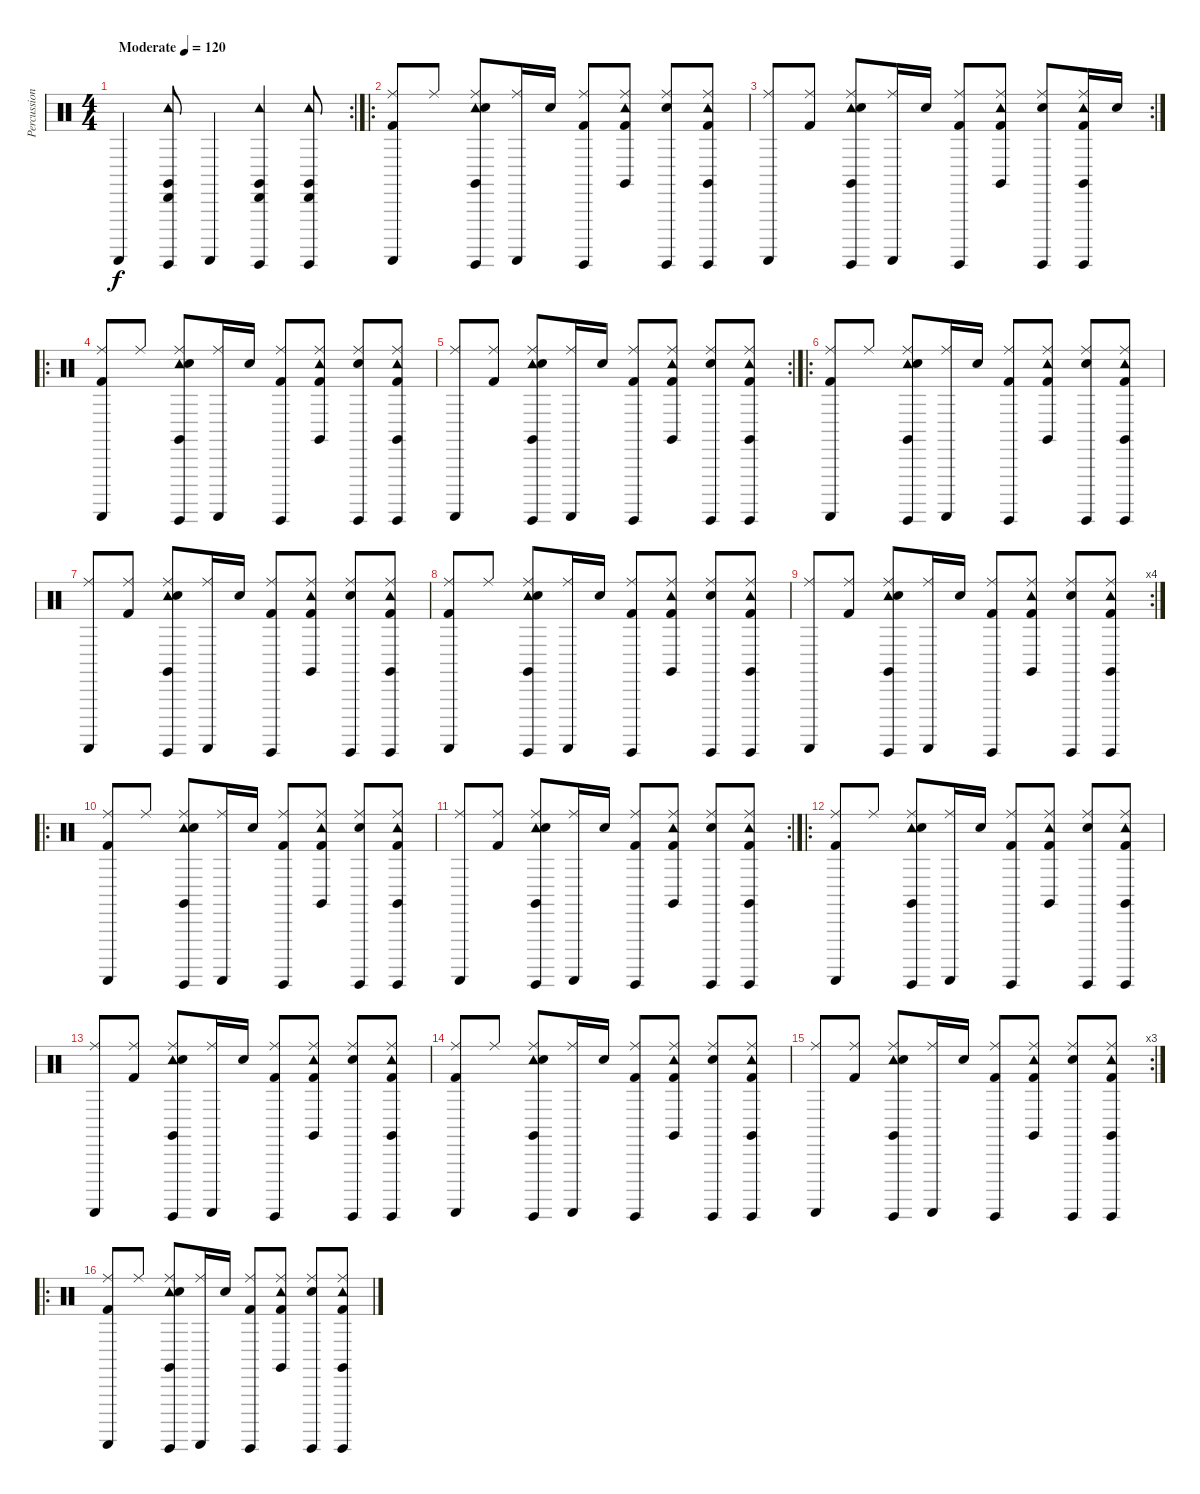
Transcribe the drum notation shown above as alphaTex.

\track ("Percussion" "Percussion") {instrument percussion}
\staff {score}
\articulation defaults
\rc 2
\ts (4 4)
\tempo (120 "Moderate")
\clef neutral
\ks c "Guiro (scrap-return)".4{dy f}
("Cabasa (hit)" "Tambourine (hit)" "Claves (hit)" "Guiro (hit)").8 "Guiro (scrap-return)".4 ("Cabasa (hit)" "Tambourine (hit)" "Claves (hit)" "Guiro (hit)").4 ("Cabasa (hit)" "Tambourine (hit)" "Claves (hit)" "Guiro (hit)").8 |
\ro
("Guiro (scrap-return)" "Ride (middle)" "Kick (hit) 2").8 "Ride (middle)".8 ("Tambourine (hit)" "Guiro (hit)" "Claves (hit)" "Snare (hit) 2" "Ride (middle)").8 ("Guiro (scrap-return)" "Ride (middle)").16 "Snare (hit) 2".16 ("Guiro (hit)" "Kick (hit) 2" "Ride (middle)").8 ("Tambourine (hit)" "Claves (hit)" "Kick (hit) 2" "Ride (middle)").8 ("Guiro (hit)" "Snare (hit) 2" "Ride (middle)").8 ("Tambourine (hit)" "Guiro (hit)" "Claves (hit)" "Kick (hit) 2" "Ride (middle)").8 |
\rc 2
("Guiro (scrap-return)" "Ride (middle)").8 ("Ride (middle)" "Kick (hit) 2").8 ("Tambourine (hit)" "Guiro (hit)" "Claves (hit)" "Snare (hit) 2" "Ride (middle)").8 ("Guiro (scrap-return)" "Ride (middle)").16 "Snare (hit) 2".16 ("Guiro (hit)" "Kick (hit) 2" "Ride (middle)").8 ("Tambourine (hit)" "Claves (hit)" "Kick (hit) 2" "Ride (middle)").8 ("Guiro (hit)" "Snare (hit) 2" "Ride (middle)").8 ("Tambourine (hit)" "Guiro (hit)" "Claves (hit)" "Kick (hit) 2" "Ride (middle)").16 "Snare (hit) 2".16 |
\ro
("Guiro (scrap-return)" "Ride (middle)" "Kick (hit) 2").8 "Ride (middle)".8 ("Tambourine (hit)" "Guiro (hit)" "Claves (hit)" "Snare (hit) 2" "Ride (middle)").8 ("Guiro (scrap-return)" "Ride (middle)").16 "Snare (hit) 2".16 ("Guiro (hit)" "Kick (hit) 2" "Ride (middle)").8 ("Tambourine (hit)" "Claves (hit)" "Kick (hit) 2" "Ride (middle)").8 ("Guiro (hit)" "Snare (hit) 2" "Ride (middle)").8 ("Tambourine (hit)" "Guiro (hit)" "Claves (hit)" "Kick (hit) 2" "Ride (middle)").8 |
\rc 2
("Guiro (scrap-return)" "Ride (middle)").8 ("Ride (middle)" "Kick (hit) 2").8 ("Tambourine (hit)" "Guiro (hit)" "Claves (hit)" "Snare (hit) 2" "Ride (middle)").8 ("Guiro (scrap-return)" "Ride (middle)").16 "Snare (hit) 2".16 ("Guiro (hit)" "Kick (hit) 2" "Ride (middle)").8 ("Tambourine (hit)" "Claves (hit)" "Kick (hit) 2" "Ride (middle)").8 ("Guiro (hit)" "Snare (hit) 2" "Ride (middle)").8 ("Tambourine (hit)" "Guiro (hit)" "Claves (hit)" "Kick (hit) 2" "Ride (middle)").8 |
\ro
("Guiro (scrap-return)" "Ride (middle)" "Kick (hit) 2").8 "Ride (middle)".8 ("Tambourine (hit)" "Guiro (hit)" "Claves (hit)" "Snare (hit) 2" "Ride (middle)").8 ("Guiro (scrap-return)" "Ride (middle)").16 "Snare (hit) 2".16 ("Guiro (hit)" "Kick (hit) 2" "Ride (middle)").8 ("Tambourine (hit)" "Claves (hit)" "Kick (hit) 2" "Ride (middle)").8 ("Guiro (hit)" "Snare (hit) 2" "Ride (middle)").8 ("Tambourine (hit)" "Guiro (hit)" "Claves (hit)" "Kick (hit) 2" "Ride (middle)").8 |
("Guiro (scrap-return)" "Ride (middle)").8 ("Ride (middle)" "Kick (hit) 2").8 ("Tambourine (hit)" "Guiro (hit)" "Claves (hit)" "Snare (hit) 2" "Ride (middle)").8 ("Guiro (scrap-return)" "Ride (middle)").16 "Snare (hit) 2".16 ("Guiro (hit)" "Kick (hit) 2" "Ride (middle)").8 ("Tambourine (hit)" "Claves (hit)" "Kick (hit) 2" "Ride (middle)").8 ("Guiro (hit)" "Snare (hit) 2" "Ride (middle)").8 ("Tambourine (hit)" "Guiro (hit)" "Claves (hit)" "Kick (hit) 2" "Ride (middle)").8 |
("Guiro (scrap-return)" "Ride (middle)" "Kick (hit) 2").8 "Ride (middle)".8 ("Tambourine (hit)" "Guiro (hit)" "Claves (hit)" "Snare (hit) 2" "Ride (middle)").8 ("Guiro (scrap-return)" "Ride (middle)").16 "Snare (hit) 2".16 ("Guiro (hit)" "Kick (hit) 2" "Ride (middle)").8 ("Tambourine (hit)" "Claves (hit)" "Kick (hit) 2" "Ride (middle)").8 ("Guiro (hit)" "Snare (hit) 2" "Ride (middle)").8 ("Tambourine (hit)" "Guiro (hit)" "Claves (hit)" "Kick (hit) 2" "Ride (middle)").8 |
\rc 4
("Guiro (scrap-return)" "Ride (middle)").8 ("Ride (middle)" "Kick (hit) 2").8 ("Tambourine (hit)" "Guiro (hit)" "Claves (hit)" "Snare (hit) 2" "Ride (middle)").8 ("Guiro (scrap-return)" "Ride (middle)").16 "Snare (hit) 2".16 ("Guiro (hit)" "Kick (hit) 2" "Ride (middle)").8 ("Tambourine (hit)" "Claves (hit)" "Kick (hit) 2" "Ride (middle)").8 ("Guiro (hit)" "Snare (hit) 2" "Ride (middle)").8 ("Tambourine (hit)" "Guiro (hit)" "Claves (hit)" "Kick (hit) 2" "Ride (middle)").8 |
\ro
("Guiro (scrap-return)" "Ride (middle)" "Kick (hit) 2").8 "Ride (middle)".8 ("Tambourine (hit)" "Guiro (hit)" "Claves (hit)" "Snare (hit) 2" "Ride (middle)").8 ("Guiro (scrap-return)" "Ride (middle)").16 "Snare (hit) 2".16 ("Guiro (hit)" "Kick (hit) 2" "Ride (middle)").8 ("Tambourine (hit)" "Claves (hit)" "Kick (hit) 2" "Ride (middle)").8 ("Guiro (hit)" "Snare (hit) 2" "Ride (middle)").8 ("Tambourine (hit)" "Guiro (hit)" "Claves (hit)" "Kick (hit) 2" "Ride (middle)").8 |
\rc 2
("Guiro (scrap-return)" "Ride (middle)").8 ("Ride (middle)" "Kick (hit) 2").8 ("Tambourine (hit)" "Guiro (hit)" "Claves (hit)" "Snare (hit) 2" "Ride (middle)").8 ("Guiro (scrap-return)" "Ride (middle)").16 "Snare (hit) 2".16 ("Guiro (hit)" "Kick (hit) 2" "Ride (middle)").8 ("Tambourine (hit)" "Claves (hit)" "Kick (hit) 2" "Ride (middle)").8 ("Guiro (hit)" "Snare (hit) 2" "Ride (middle)").8 ("Tambourine (hit)" "Guiro (hit)" "Claves (hit)" "Kick (hit) 2" "Ride (middle)").8 |
\ro
("Guiro (scrap-return)" "Ride (middle)" "Kick (hit) 2").8 "Ride (middle)".8 ("Tambourine (hit)" "Guiro (hit)" "Claves (hit)" "Snare (hit) 2" "Ride (middle)").8 ("Guiro (scrap-return)" "Ride (middle)").16 "Snare (hit) 2".16 ("Guiro (hit)" "Kick (hit) 2" "Ride (middle)").8 ("Tambourine (hit)" "Claves (hit)" "Kick (hit) 2" "Ride (middle)").8 ("Guiro (hit)" "Snare (hit) 2" "Ride (middle)").8 ("Tambourine (hit)" "Guiro (hit)" "Claves (hit)" "Kick (hit) 2" "Ride (middle)").8 |
("Guiro (scrap-return)" "Ride (middle)").8 ("Ride (middle)" "Kick (hit) 2").8 ("Tambourine (hit)" "Guiro (hit)" "Claves (hit)" "Snare (hit) 2" "Ride (middle)").8 ("Guiro (scrap-return)" "Ride (middle)").16 "Snare (hit) 2".16 ("Guiro (hit)" "Kick (hit) 2" "Ride (middle)").8 ("Tambourine (hit)" "Claves (hit)" "Kick (hit) 2" "Ride (middle)").8 ("Guiro (hit)" "Snare (hit) 2" "Ride (middle)").8 ("Tambourine (hit)" "Guiro (hit)" "Claves (hit)" "Kick (hit) 2" "Ride (middle)").8 |
("Guiro (scrap-return)" "Ride (middle)" "Kick (hit) 2").8 "Ride (middle)".8 ("Tambourine (hit)" "Guiro (hit)" "Claves (hit)" "Snare (hit) 2" "Ride (middle)").8 ("Guiro (scrap-return)" "Ride (middle)").16 "Snare (hit) 2".16 ("Guiro (hit)" "Kick (hit) 2" "Ride (middle)").8 ("Tambourine (hit)" "Claves (hit)" "Kick (hit) 2" "Ride (middle)").8 ("Guiro (hit)" "Snare (hit) 2" "Ride (middle)").8 ("Tambourine (hit)" "Guiro (hit)" "Claves (hit)" "Kick (hit) 2" "Ride (middle)").8 |
\rc 3
("Guiro (scrap-return)" "Ride (middle)").8 ("Ride (middle)" "Kick (hit) 2").8 ("Tambourine (hit)" "Guiro (hit)" "Claves (hit)" "Snare (hit) 2" "Ride (middle)").8 ("Guiro (scrap-return)" "Ride (middle)").16 "Snare (hit) 2".16 ("Guiro (hit)" "Kick (hit) 2" "Ride (middle)").8 ("Tambourine (hit)" "Claves (hit)" "Kick (hit) 2" "Ride (middle)").8 ("Guiro (hit)" "Snare (hit) 2" "Ride (middle)").8 ("Tambourine (hit)" "Guiro (hit)" "Claves (hit)" "Kick (hit) 2" "Ride (middle)").8 |
\ro
("Guiro (scrap-return)" "Ride (middle)" "Kick (hit) 2").8 "Ride (middle)".8 ("Tambourine (hit)" "Guiro (hit)" "Claves (hit)" "Snare (hit) 2" "Ride (middle)").8 ("Guiro (scrap-return)" "Ride (middle)").16 "Snare (hit) 2".16 ("Guiro (hit)" "Kick (hit) 2" "Ride (middle)").8 ("Tambourine (hit)" "Claves (hit)" "Kick (hit) 2" "Ride (middle)").8 ("Guiro (hit)" "Snare (hit) 2" "Ride (middle)").8 ("Tambourine (hit)" "Guiro (hit)" "Claves (hit)" "Kick (hit) 2" "Ride (middle)").8
